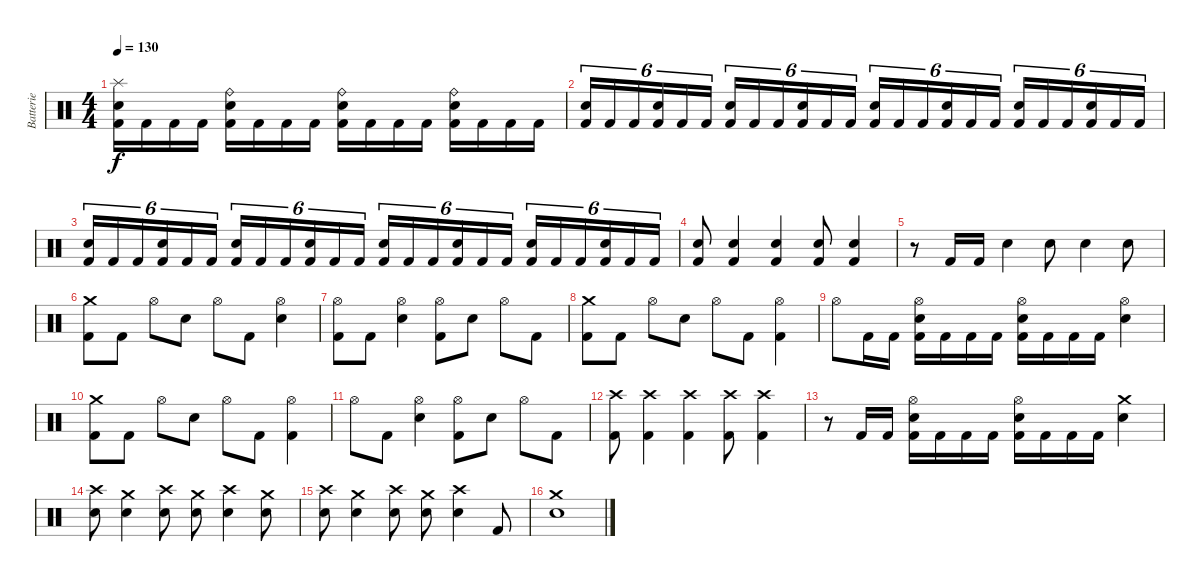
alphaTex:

\track ("Batterie" "Batterie") {instrument percussion}
\staff {score}
\articulation defaults
\ts (4 4)
\tempo 130
\clef neutral
\ks c
("Splash (hit)" "Snare (hit) 2" "Kick (hit) 2").16{dy f} "Kick (hit) 2".16 "Kick (hit) 2".16 "Kick (hit) 2".16 ("Ride (bell)" "Snare (hit) 2" "Kick (hit) 2").16 "Kick (hit) 2".16 "Kick (hit) 2".16 "Kick (hit) 2".16 ("Ride (bell)" "Snare (hit) 2" "Kick (hit) 2").16 "Kick (hit) 2".16 "Kick (hit) 2".16 "Kick (hit) 2".16 ("Ride (bell)" "Snare (hit) 2" "Kick (hit) 2").16 "Kick (hit) 2".16 "Kick (hit) 2".16 "Kick (hit) 2".16 |
("Snare (hit) 2" "Kick (hit) 2").16{tu (6 4)} "Kick (hit) 2".16{tu (6 4)} "Kick (hit) 2".16{tu (6 4)} ("Snare (hit) 2" "Kick (hit) 2").16{tu (6 4)} "Kick (hit) 2".16{tu (6 4)} "Kick (hit) 2".16{tu (6 4)} ("Snare (hit) 2" "Kick (hit) 2").16{tu (6 4)} "Kick (hit) 2".16{tu (6 4)} "Kick (hit) 2".16{tu (6 4)} ("Snare (hit) 2" "Kick (hit) 2").16{tu (6 4)} "Kick (hit) 2".16{tu (6 4)} "Kick (hit) 2".16{tu (6 4)} ("Snare (hit) 2" "Kick (hit) 2").16{tu (6 4)} "Kick (hit) 2".16{tu (6 4)} "Kick (hit) 2".16{tu (6 4)} ("Snare (hit) 2" "Kick (hit) 2").16{tu (6 4)} "Kick (hit) 2".16{tu (6 4)} "Kick (hit) 2".16{tu (6 4)} ("Snare (hit) 2" "Kick (hit) 2").16{tu (6 4)} "Kick (hit) 2".16{tu (6 4)} "Kick (hit) 2".16{tu (6 4)} ("Snare (hit) 2" "Kick (hit) 2").16{tu (6 4)} "Kick (hit) 2".16{tu (6 4)} "Kick (hit) 2".16{tu (6 4)} |
("Snare (hit) 2" "Kick (hit) 2").16{tu (6 4)} "Kick (hit) 2".16{tu (6 4)} "Kick (hit) 2".16{tu (6 4)} ("Snare (hit) 2" "Kick (hit) 2").16{tu (6 4)} "Kick (hit) 2".16{tu (6 4)} "Kick (hit) 2".16{tu (6 4)} ("Snare (hit) 2" "Kick (hit) 2").16{tu (6 4)} "Kick (hit) 2".16{tu (6 4)} "Kick (hit) 2".16{tu (6 4)} ("Snare (hit) 2" "Kick (hit) 2").16{tu (6 4)} "Kick (hit) 2".16{tu (6 4)} "Kick (hit) 2".16{tu (6 4)} ("Snare (hit) 2" "Kick (hit) 2").16{tu (6 4)} "Kick (hit) 2".16{tu (6 4)} "Kick (hit) 2".16{tu (6 4)} ("Snare (hit) 2" "Kick (hit) 2").16{tu (6 4)} "Kick (hit) 2".16{tu (6 4)} "Kick (hit) 2".16{tu (6 4)} ("Snare (hit) 2" "Kick (hit) 2").16{tu (6 4)} "Kick (hit) 2".16{tu (6 4)} "Kick (hit) 2".16{tu (6 4)} ("Snare (hit) 2" "Kick (hit) 2").16{tu (6 4)} "Kick (hit) 2".16{tu (6 4)} "Kick (hit) 2".16{tu (6 4)} |
("Snare (hit) 2" "Kick (hit) 2").8 ("Snare (hit) 2" "Kick (hit) 2").4 ("Snare (hit) 2" "Kick (hit) 2").4 ("Snare (hit) 2" "Kick (hit) 2").8 ("Snare (hit) 2" "Kick (hit) 2").4 |
r.8 "Kick (hit) 2".16 "Kick (hit) 2".16 "Snare (hit) 2".4 "Snare (hit) 2".8 "Snare (hit) 2".4 "Snare (hit) 2".8 |
("Crash medium (hit)" "Kick (hit) 2").8 "Kick (hit) 2".8 "Hi-Hat (open)".8 "Snare (hit) 2".8 "Hi-Hat (open)".8 "Kick (hit) 2".8 ("Hi-Hat (open)" "Snare (hit) 2").4 |
("Hi-Hat (open)" "Kick (hit) 2").8 "Kick (hit) 2".8 ("Hi-Hat (open)" "Snare (hit) 2").4 ("Hi-Hat (open)" "Kick (hit) 2").8 "Snare (hit) 2".8 "Hi-Hat (open)".8 "Kick (hit) 2".8 |
("Crash medium (hit)" "Kick (hit) 2").8 "Kick (hit) 2".8 "Hi-Hat (open)".8 "Snare (hit) 2".8 "Hi-Hat (open)".8 "Kick (hit) 2".8 ("Hi-Hat (open)" "Kick (hit) 2").4 |
"Hi-Hat (open)".8 "Kick (hit) 2".16 "Kick (hit) 2".16 ("Hi-Hat (open)" "Snare (hit) 2" "Kick (hit) 2").16 "Kick (hit) 2".16 "Kick (hit) 2".16 "Kick (hit) 2".16 ("Hi-Hat (open)" "Snare (hit) 2" "Kick (hit) 2").16 "Kick (hit) 2".16 "Kick (hit) 2".16 "Kick (hit) 2".16 ("Hi-Hat (open)" "Snare (hit) 2").4 |
("Crash medium (hit)" "Kick (hit) 2").8 "Kick (hit) 2".8 "Hi-Hat (open)".8 "Snare (hit) 2".8 "Hi-Hat (open)".8 "Kick (hit) 2".8 ("Hi-Hat (open)" "Kick (hit) 2").4 |
"Hi-Hat (open)".8 "Kick (hit) 2".8 ("Hi-Hat (open)" "Snare (hit) 2").4 ("Hi-Hat (open)" "Kick (hit) 2").8 "Snare (hit) 2".8 "Hi-Hat (open)".8 "Kick (hit) 2".8 |
("Crash high (hit)" "Kick (hit) 2").8 ("Crash high (hit)" "Kick (hit) 2").4 ("Crash high (hit)" "Kick (hit) 2").4 ("Crash high (hit)" "Kick (hit) 2").8 ("Crash high (hit)" "Kick (hit) 2").4 |
r.8 "Kick (hit) 2".16 "Kick (hit) 2".16 ("Hi-Hat (open)" "Snare (hit) 2" "Kick (hit) 2").16 "Kick (hit) 2".16 "Kick (hit) 2".16 "Kick (hit) 2".16 ("Hi-Hat (open)" "Snare (hit) 2" "Kick (hit) 2").16 "Kick (hit) 2".16 "Kick (hit) 2".16 "Kick (hit) 2".16 ("Crash medium (hit)" "Snare (hit) 2").4 |
("Crash high (hit)" "Snare (hit) 2").8 ("Crash medium (hit)" "Snare (hit) 2").4 ("Crash high (hit)" "Snare (hit) 2").8 ("Crash medium (hit)" "Snare (hit) 2").8 ("Crash high (hit)" "Snare (hit) 2").4 ("Crash medium (hit)" "Snare (hit) 2").8 |
("Crash high (hit)" "Snare (hit) 2").8 ("Crash medium (hit)" "Snare (hit) 2").4 ("Crash high (hit)" "Snare (hit) 2").8 ("Crash medium (hit)" "Snare (hit) 2").8 ("Crash high (hit)" "Snare (hit) 2").4 "Kick (hit) 2".8 |
("Crash medium (hit)" "Snare (hit) 2").1
